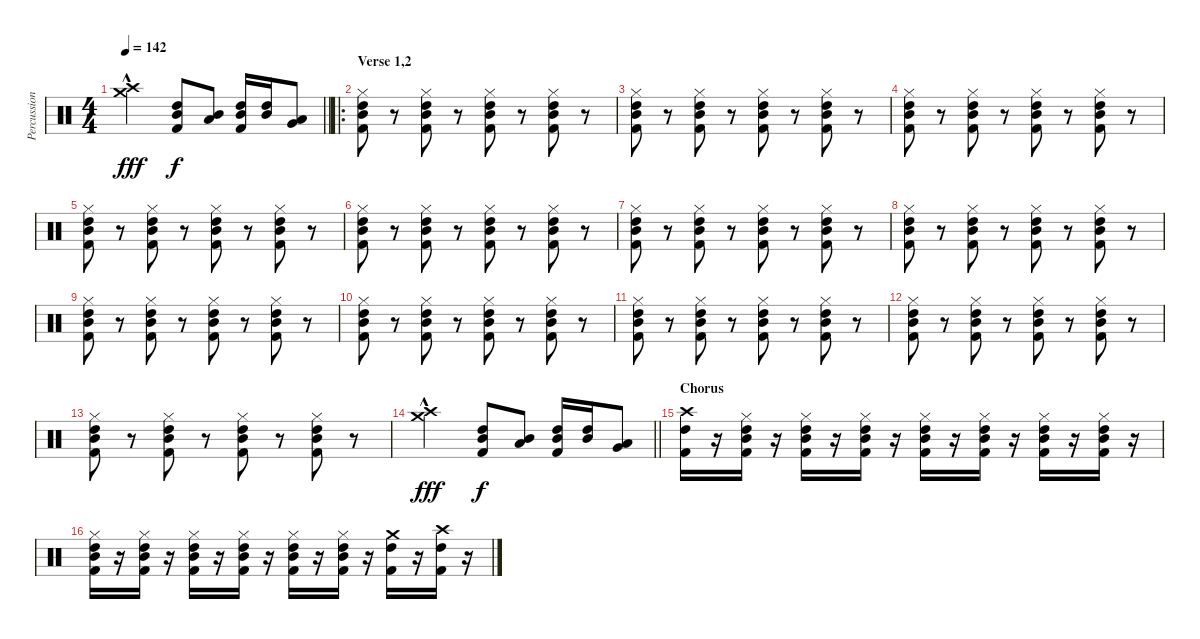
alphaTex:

\track ("Percussion" "Percussion") {instrument percussion}
\staff {score}
\articulation defaults
\ts (4 4)
\tempo 142
\clef neutral
\barLineRight lightlight
\ks c
("Crash high (hit)"{hac} "Crash medium (hit)"{hac}).2{dy fff} ("Mid Tom (hit)" "High Tom (hit)" "Kick (hit) 2").8{dy f} ("Low Tom (hit)" "Mid Tom (hit)").8 ("Mid Tom (hit)" "High Tom (hit)" "Kick (hit) 2").16 ("Mid Tom (hit)" "High Tom (hit)").16 ("Low Tom (hit)" "Very Low Tom (hit)").8 |
\ro
\section ("" "Verse 1,2")
("Hi-Hat (closed)" "High Tom (hit)" "Mid Tom (hit)" "Kick (hit) 2").8 r.8 ("Hi-Hat (closed)" "High Tom (hit)" "Mid Tom (hit)" "Kick (hit) 2").8 r.8 ("Hi-Hat (closed)" "High Tom (hit)" "Mid Tom (hit)" "Kick (hit) 2").8 r.8 ("Hi-Hat (closed)" "High Tom (hit)" "Mid Tom (hit)" "Kick (hit) 2").8 r.8 |
("Hi-Hat (closed)" "High Tom (hit)" "Mid Tom (hit)" "Kick (hit) 2").8 r.8 ("Hi-Hat (closed)" "High Tom (hit)" "Mid Tom (hit)" "Kick (hit) 2").8 r.8 ("Hi-Hat (closed)" "High Tom (hit)" "Mid Tom (hit)" "Kick (hit) 2").8 r.8 ("Hi-Hat (closed)" "High Tom (hit)" "Mid Tom (hit)" "Kick (hit) 2").8 r.8 |
("Hi-Hat (closed)" "High Tom (hit)" "Mid Tom (hit)" "Kick (hit) 2").8 r.8 ("Hi-Hat (closed)" "High Tom (hit)" "Mid Tom (hit)" "Kick (hit) 2").8 r.8 ("Hi-Hat (closed)" "High Tom (hit)" "Mid Tom (hit)" "Kick (hit) 2").8 r.8 ("Hi-Hat (closed)" "High Tom (hit)" "Mid Tom (hit)" "Kick (hit) 2").8 r.8 |
("Hi-Hat (closed)" "High Tom (hit)" "Mid Tom (hit)" "Kick (hit) 2").8 r.8 ("Hi-Hat (closed)" "High Tom (hit)" "Mid Tom (hit)" "Kick (hit) 2").8 r.8 ("Hi-Hat (closed)" "High Tom (hit)" "Mid Tom (hit)" "Kick (hit) 2").8 r.8 ("Hi-Hat (closed)" "High Tom (hit)" "Mid Tom (hit)" "Kick (hit) 2").8 r.8 |
("Hi-Hat (closed)" "High Tom (hit)" "Mid Tom (hit)" "Kick (hit) 2").8 r.8 ("Hi-Hat (closed)" "High Tom (hit)" "Mid Tom (hit)" "Kick (hit) 2").8 r.8 ("Hi-Hat (closed)" "High Tom (hit)" "Mid Tom (hit)" "Kick (hit) 2").8 r.8 ("Hi-Hat (closed)" "High Tom (hit)" "Mid Tom (hit)" "Kick (hit) 2").8 r.8 |
("Hi-Hat (closed)" "High Tom (hit)" "Mid Tom (hit)" "Kick (hit) 2").8 r.8 ("Hi-Hat (closed)" "High Tom (hit)" "Mid Tom (hit)" "Kick (hit) 2").8 r.8 ("Hi-Hat (closed)" "High Tom (hit)" "Mid Tom (hit)" "Kick (hit) 2").8 r.8 ("Hi-Hat (closed)" "High Tom (hit)" "Mid Tom (hit)" "Kick (hit) 2").8 r.8 |
("Hi-Hat (closed)" "High Tom (hit)" "Mid Tom (hit)" "Kick (hit) 2").8 r.8 ("Hi-Hat (closed)" "High Tom (hit)" "Mid Tom (hit)" "Kick (hit) 2").8 r.8 ("Hi-Hat (closed)" "High Tom (hit)" "Mid Tom (hit)" "Kick (hit) 2").8 r.8 ("Hi-Hat (closed)" "High Tom (hit)" "Mid Tom (hit)" "Kick (hit) 2").8 r.8 |
("Hi-Hat (closed)" "High Tom (hit)" "Mid Tom (hit)" "Kick (hit) 2").8 r.8 ("Hi-Hat (closed)" "High Tom (hit)" "Mid Tom (hit)" "Kick (hit) 2").8 r.8 ("Hi-Hat (closed)" "High Tom (hit)" "Mid Tom (hit)" "Kick (hit) 2").8 r.8 ("Hi-Hat (closed)" "High Tom (hit)" "Mid Tom (hit)" "Kick (hit) 2").8 r.8 |
("Hi-Hat (closed)" "High Tom (hit)" "Mid Tom (hit)" "Kick (hit) 2").8 r.8 ("Hi-Hat (closed)" "High Tom (hit)" "Mid Tom (hit)" "Kick (hit) 2").8 r.8 ("Hi-Hat (closed)" "High Tom (hit)" "Mid Tom (hit)" "Kick (hit) 2").8 r.8 ("Hi-Hat (closed)" "High Tom (hit)" "Mid Tom (hit)" "Kick (hit) 2").8 r.8 |
("Hi-Hat (closed)" "High Tom (hit)" "Mid Tom (hit)" "Kick (hit) 2").8 r.8 ("Hi-Hat (closed)" "High Tom (hit)" "Mid Tom (hit)" "Kick (hit) 2").8 r.8 ("Hi-Hat (closed)" "High Tom (hit)" "Mid Tom (hit)" "Kick (hit) 2").8 r.8 ("Hi-Hat (closed)" "High Tom (hit)" "Mid Tom (hit)" "Kick (hit) 2").8 r.8 |
("Hi-Hat (closed)" "High Tom (hit)" "Mid Tom (hit)" "Kick (hit) 2").8 r.8 ("Hi-Hat (closed)" "High Tom (hit)" "Mid Tom (hit)" "Kick (hit) 2").8 r.8 ("Hi-Hat (closed)" "High Tom (hit)" "Mid Tom (hit)" "Kick (hit) 2").8 r.8 ("Hi-Hat (closed)" "High Tom (hit)" "Mid Tom (hit)" "Kick (hit) 2").8 r.8 |
("Hi-Hat (closed)" "High Tom (hit)" "Mid Tom (hit)" "Kick (hit) 2").8 r.8 ("Hi-Hat (closed)" "High Tom (hit)" "Mid Tom (hit)" "Kick (hit) 2").8 r.8 ("Hi-Hat (closed)" "High Tom (hit)" "Mid Tom (hit)" "Kick (hit) 2").8 r.8 ("Hi-Hat (closed)" "High Tom (hit)" "Mid Tom (hit)" "Kick (hit) 2").8 r.8 |
\barLineRight lightlight
("Crash high (hit)"{hac} "Crash medium (hit)"{hac}).2{dy fff} ("Mid Tom (hit)" "High Tom (hit)" "Kick (hit) 2").8{dy f} ("Low Tom (hit)" "Mid Tom (hit)").8 ("Mid Tom (hit)" "High Tom (hit)" "Kick (hit) 2").16 ("Mid Tom (hit)" "High Tom (hit)").16 ("Low Tom (hit)" "Very Low Tom (hit)").8 |
\section ("" "Chorus")
("Crash high (hit)" "High Tom (hit)" "Kick (hit) 2").16 r.16 ("Hi-Hat (closed)" "High Tom (hit)" "Mid Tom (hit)" "Kick (hit) 2").16 r.16 ("Hi-Hat (closed)" "High Tom (hit)" "Mid Tom (hit)" "Kick (hit) 2").16 r.16 ("Hi-Hat (closed)" "High Tom (hit)" "Mid Tom (hit)" "Kick (hit) 2").16 r.16 ("Hi-Hat (closed)" "High Tom (hit)" "Mid Tom (hit)" "Kick (hit) 2").16 r.16 ("Hi-Hat (closed)" "High Tom (hit)" "Mid Tom (hit)" "Kick (hit) 2").16 r.16 ("Hi-Hat (closed)" "High Tom (hit)" "Mid Tom (hit)" "Kick (hit) 2").16 r.16 ("Hi-Hat (closed)" "High Tom (hit)" "Mid Tom (hit)" "Kick (hit) 2").16 r.16 |
("Hi-Hat (closed)" "High Tom (hit)" "Mid Tom (hit)" "Kick (hit) 2").16 r.16 ("Hi-Hat (closed)" "High Tom (hit)" "Mid Tom (hit)" "Kick (hit) 2").16 r.16 ("Hi-Hat (closed)" "High Tom (hit)" "Mid Tom (hit)" "Kick (hit) 2").16 r.16 ("Hi-Hat (closed)" "High Tom (hit)" "Mid Tom (hit)" "Kick (hit) 2").16 r.16 ("Hi-Hat (closed)" "High Tom (hit)" "Mid Tom (hit)" "Kick (hit) 2").16 r.16 ("Hi-Hat (closed)" "High Tom (hit)" "Mid Tom (hit)" "Kick (hit) 2").16 r.16 ("Crash medium (hit)" "High Tom (hit)" "Kick (hit) 2").16 r.16 ("Crash high (hit)" "High Tom (hit)" "Kick (hit) 2").16 r.16
